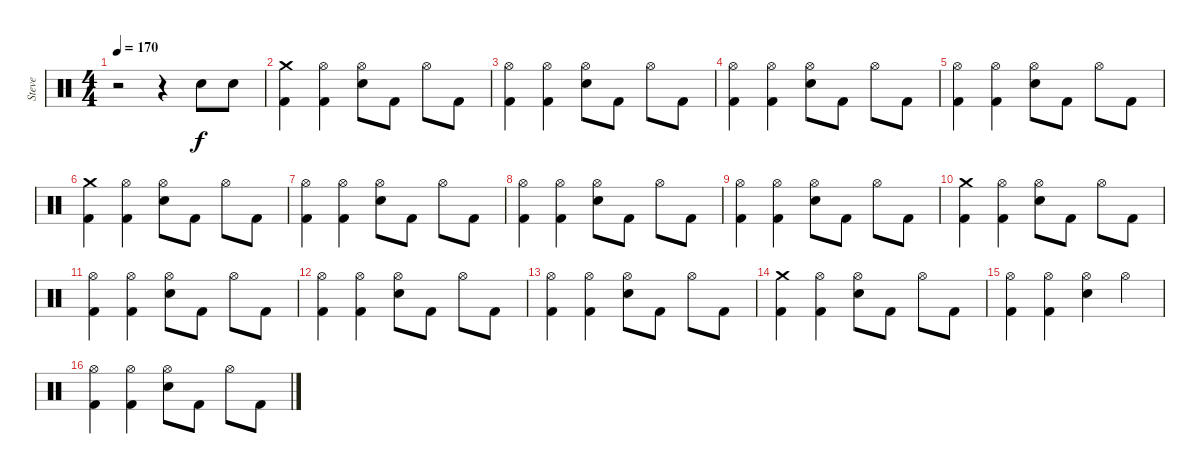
\track ("Steve" "Steve") {instrument percussion}
\staff {score}
\articulation defaults
\ts (4 4)
\tempo 170
\clef neutral
\ks c
r.2{dy f} r.4 "Electric Snare (hit)".8 "Electric Snare (hit)".8 |
("Crash medium (hit)" "Kick (hit) 2").4 ("Hi-Hat (open)" "Kick (hit) 2").4 ("Electric Snare (hit)" "Hi-Hat (open)").8 "Kick (hit) 2".8 "Hi-Hat (open)".8 "Kick (hit) 2".8 |
("Hi-Hat (open)" "Kick (hit) 2").4 ("Hi-Hat (open)" "Kick (hit) 2").4 ("Electric Snare (hit)" "Hi-Hat (open)").8 "Kick (hit) 2".8 "Hi-Hat (open)".8 "Kick (hit) 2".8 |
("Hi-Hat (open)" "Kick (hit) 2").4 ("Hi-Hat (open)" "Kick (hit) 2").4 ("Electric Snare (hit)" "Hi-Hat (open)").8 "Kick (hit) 2".8 "Hi-Hat (open)".8 "Kick (hit) 2".8 |
("Hi-Hat (open)" "Kick (hit) 2").4 ("Hi-Hat (open)" "Kick (hit) 2").4 ("Electric Snare (hit)" "Hi-Hat (open)").8 "Kick (hit) 2".8 "Hi-Hat (open)".8 "Kick (hit) 2".8 |
("Crash medium (hit)" "Kick (hit) 2").4 ("Hi-Hat (open)" "Kick (hit) 2").4 ("Electric Snare (hit)" "Hi-Hat (open)").8 "Kick (hit) 2".8 "Hi-Hat (open)".8 "Kick (hit) 2".8 |
("Hi-Hat (open)" "Kick (hit) 2").4 ("Hi-Hat (open)" "Kick (hit) 2").4 ("Electric Snare (hit)" "Hi-Hat (open)").8 "Kick (hit) 2".8 "Hi-Hat (open)".8 "Kick (hit) 2".8 |
("Hi-Hat (open)" "Kick (hit) 2").4 ("Hi-Hat (open)" "Kick (hit) 2").4 ("Electric Snare (hit)" "Hi-Hat (open)").8 "Kick (hit) 2".8 "Hi-Hat (open)".8 "Kick (hit) 2".8 |
("Hi-Hat (open)" "Kick (hit) 2").4 ("Hi-Hat (open)" "Kick (hit) 2").4 ("Electric Snare (hit)" "Hi-Hat (open)").8 "Kick (hit) 2".8 "Hi-Hat (open)".8 "Kick (hit) 2".8 |
("Crash medium (hit)" "Kick (hit) 2").4 ("Hi-Hat (open)" "Kick (hit) 2").4 ("Electric Snare (hit)" "Hi-Hat (open)").8 "Kick (hit) 2".8 "Hi-Hat (open)".8 "Kick (hit) 2".8 |
("Hi-Hat (open)" "Kick (hit) 2").4 ("Hi-Hat (open)" "Kick (hit) 2").4 ("Electric Snare (hit)" "Hi-Hat (open)").8 "Kick (hit) 2".8 "Hi-Hat (open)".8 "Kick (hit) 2".8 |
("Hi-Hat (open)" "Kick (hit) 2").4 ("Hi-Hat (open)" "Kick (hit) 2").4 ("Electric Snare (hit)" "Hi-Hat (open)").8 "Kick (hit) 2".8 "Hi-Hat (open)".8 "Kick (hit) 2".8 |
("Hi-Hat (open)" "Kick (hit) 2").4 ("Hi-Hat (open)" "Kick (hit) 2").4 ("Electric Snare (hit)" "Hi-Hat (open)").8 "Kick (hit) 2".8 "Hi-Hat (open)".8 "Kick (hit) 2".8 |
("Crash medium (hit)" "Kick (hit) 2").4 ("Hi-Hat (open)" "Kick (hit) 2").4 ("Electric Snare (hit)" "Hi-Hat (open)").8 "Kick (hit) 2".8 "Hi-Hat (open)".8 "Kick (hit) 2".8 |
("Hi-Hat (open)" "Kick (hit) 2").4 ("Hi-Hat (open)" "Kick (hit) 2").4 ("Electric Snare (hit)" "Hi-Hat (open)").4 "Hi-Hat (open)".4 |
("Hi-Hat (open)" "Kick (hit) 2").4 ("Hi-Hat (open)" "Kick (hit) 2").4 ("Electric Snare (hit)" "Hi-Hat (open)").8 "Kick (hit) 2".8 "Hi-Hat (open)".8 "Kick (hit) 2".8
